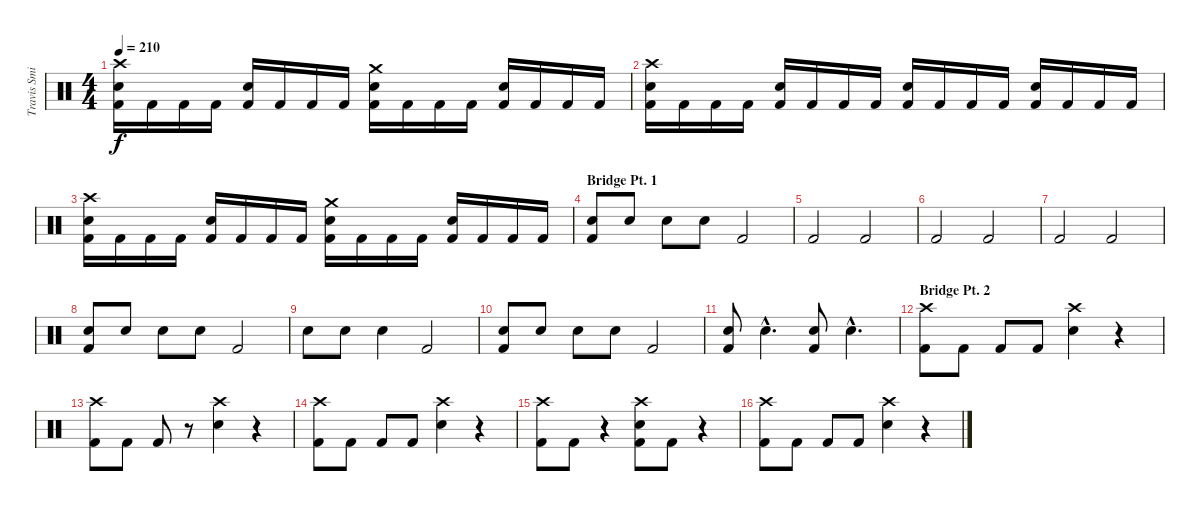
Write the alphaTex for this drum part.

\track ("Travis Smith" "Travis Smi") {instrument percussion}
\staff {score}
\articulation defaults
\ts (4 4)
\tempo 210
\clef neutral
\ks c
("Crash high (hit)" "Snare (hit) 2" "Kick (hit) 2").16{dy f} "Kick (hit) 2".16 "Kick (hit) 2".16 "Kick (hit) 2".16 ("Snare (hit) 2" "Kick (hit) 2").16 "Kick (hit) 2".16 "Kick (hit) 2".16 "Kick (hit) 2".16 ("Crash medium (hit)" "Snare (hit) 2" "Kick (hit) 2").16 "Kick (hit) 2".16 "Kick (hit) 2".16 "Kick (hit) 2".16 ("Snare (hit) 2" "Kick (hit) 2").16 "Kick (hit) 2".16 "Kick (hit) 2".16 "Kick (hit) 2".16 |
("Crash high (hit)" "Snare (hit) 2" "Kick (hit) 2").16 "Kick (hit) 2".16 "Kick (hit) 2".16 "Kick (hit) 2".16 ("Snare (hit) 2" "Kick (hit) 2").16 "Kick (hit) 2".16 "Kick (hit) 2".16 "Kick (hit) 2".16 ("Snare (hit) 2" "Kick (hit) 2").16 "Kick (hit) 2".16 "Kick (hit) 2".16 "Kick (hit) 2".16 ("Snare (hit) 2" "Kick (hit) 2").16 "Kick (hit) 2".16 "Kick (hit) 2".16 "Kick (hit) 2".16 |
("Crash high (hit)" "Snare (hit) 2" "Kick (hit) 2").16 "Kick (hit) 2".16 "Kick (hit) 2".16 "Kick (hit) 2".16 ("Snare (hit) 2" "Kick (hit) 2").16 "Kick (hit) 2".16 "Kick (hit) 2".16 "Kick (hit) 2".16 ("Crash medium (hit)" "Snare (hit) 2" "Kick (hit) 2").16 "Kick (hit) 2".16 "Kick (hit) 2".16 "Kick (hit) 2".16 ("Snare (hit) 2" "Kick (hit) 2").16 "Kick (hit) 2".16 "Kick (hit) 2".16 "Kick (hit) 2".16 |
\section ("" "Bridge Pt. 1")
("Snare (hit) 2" "Kick (hit) 2").8 "Snare (hit) 2".8 "Snare (hit) 2".8 "Snare (hit) 2".8 "Kick (hit) 2".2 |
"Kick (hit) 2".2 "Kick (hit) 2".2 |
"Kick (hit) 2".2 "Kick (hit) 2".2 |
"Kick (hit) 2".2 "Kick (hit) 2".2 |
("Snare (hit) 2" "Kick (hit) 2").8 "Snare (hit) 2".8 "Snare (hit) 2".8 "Snare (hit) 2".8 "Kick (hit) 2".2 |
"Snare (hit) 2".8 "Snare (hit) 2".8 "Snare (hit) 2".4 "Kick (hit) 2".2 |
("Snare (hit) 2" "Kick (hit) 2").8 "Snare (hit) 2".8 "Snare (hit) 2".8 "Snare (hit) 2".8 "Kick (hit) 2".2 |
("Snare (hit) 2" "Kick (hit) 2").8 "Snare (hit) 2"{hac}.4{d} ("Snare (hit) 2" "Kick (hit) 2").8 "Snare (hit) 2"{hac}.4{d} |
\section ("" "Bridge Pt. 2")
("Crash high (hit)" "Kick (hit) 2").8 "Kick (hit) 2".8 "Kick (hit) 2".8 "Kick (hit) 2".8 ("Crash high (hit)" "Snare (hit) 2").4 r.4 |
("Crash high (hit)" "Kick (hit) 2").8 "Kick (hit) 2".8 "Kick (hit) 2".8 r.8 ("Crash high (hit)" "Snare (hit) 2").4 r.4 |
("Crash high (hit)" "Kick (hit) 2").8 "Kick (hit) 2".8 "Kick (hit) 2".8 "Kick (hit) 2".8 ("Crash high (hit)" "Snare (hit) 2").4 r.4 |
("Crash high (hit)" "Kick (hit) 2").8 "Kick (hit) 2".8 r.4 ("Crash high (hit)" "Snare (hit) 2" "Kick (hit) 2").8 "Kick (hit) 2".8 r.4 |
("Crash high (hit)" "Kick (hit) 2").8 "Kick (hit) 2".8 "Kick (hit) 2".8 "Kick (hit) 2".8 ("Crash high (hit)" "Snare (hit) 2").4 r.4
